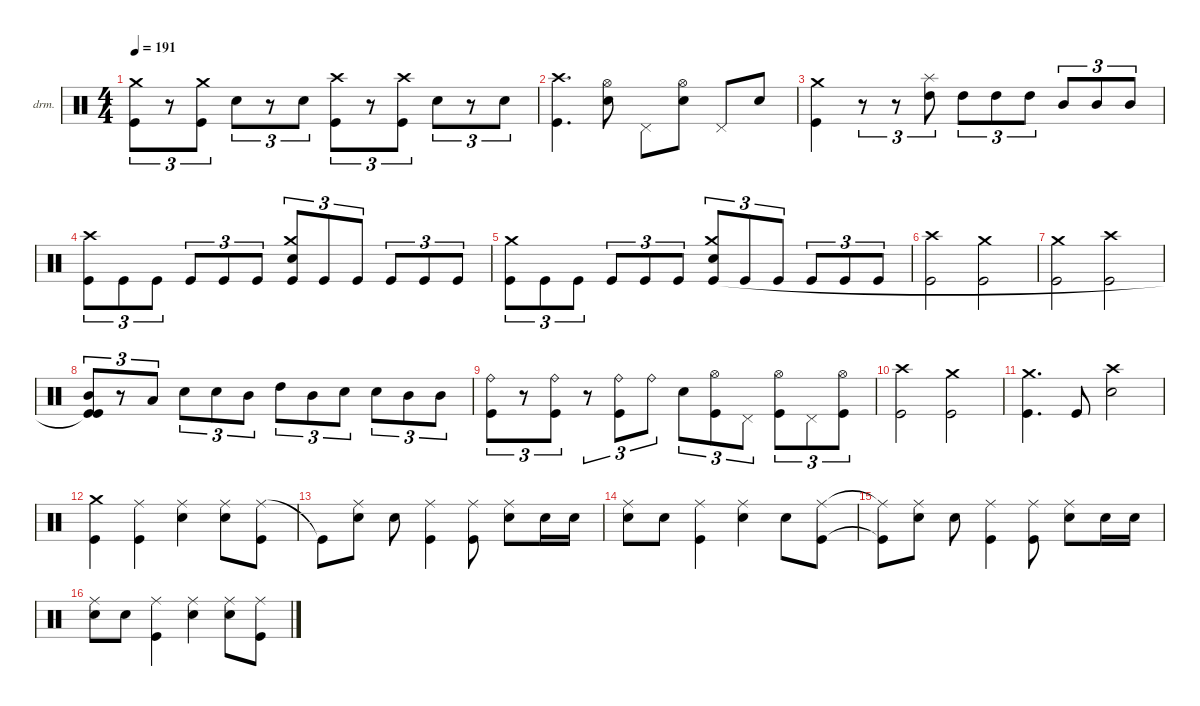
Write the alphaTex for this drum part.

\defaultSystemsLayout 4
\hideDynamics
\bracketExtendMode nobrackets
\firstSystemTrackNameOrientation horizontal
\otherSystemsTrackNameOrientation horizontal
\track ("Drumkit" "drm.") {instrument percussion}
\staff {score}
\articulation defaults
\ts (4 4)
\tempo 191
\clef neutral
\ks c
("Crash medium (hit)" "Kick (hit)").8{tu (3 2) dy mf beam Down} r.8{tu (3 2) beam Down} ("Crash medium (hit)" "Kick (hit)").8{tu (3 2) beam Down} "Snare (hit) 2".8{tu (3 2) beam Down} r.8{tu (3 2) beam Down} "Snare (hit) 2".8{tu (3 2) beam Down} ("Crash high (hit)" "Kick (hit)").8{tu (3 2) beam Down} r.8{tu (3 2) beam Down} ("Crash high (hit)" "Kick (hit)").8{tu (3 2) beam Down} "Snare (hit) 2".8{tu (3 2) beam Down} r.8{tu (3 2) beam Down} "Snare (hit) 2".8{tu (3 2) beam Down} |
("Crash high (hit)" "Kick (hit)").4{d beam Down} ("Hi-Hat (open)" "Snare (hit) 2").8{beam Down} "Pedal Hi-Hat (hit)".8{beam Down} ("Hi-Hat (open)" "Snare (hit) 2").8{beam Down} "Pedal Hi-Hat (hit)".8{beam Up} "Snare (hit) 2".8{beam Up} |
("Crash medium (hit)" "Kick (hit)").4{beam Down} r.8{tu (3 2) beam Down} r.8{tu (3 2) beam Down} ("Splash (hit)" "High Tom (hit)").8{tu (3 2) dy f beam Down} "High Tom (hit)".8{tu (3 2) dy mf beam Down} "High Tom (hit)".8{tu (3 2) beam Down} "High Tom (hit)".8{tu (3 2) beam Down} "Mid Tom (hit)".8{tu (3 2) beam Up} "Mid Tom (hit)".8{tu (3 2) beam Up} "Mid Tom (hit)".8{tu (3 2) beam Up} |
("Kick (hit)" "Crash high (hit)").8{tu (3 2) dy ff beam Down} "Kick (hit)".8{tu (3 2) dy f beam Down} "Kick (hit)".8{tu (3 2) beam Down} "Kick (hit)".8{tu (3 2) beam Up} "Kick (hit)".8{tu (3 2) beam Up} "Kick (hit)".8{tu (3 2) beam Up} ("Snare (hit) 2" "Crash medium (hit)" "Kick (hit)").8{tu (3 2) beam Up} "Kick (hit)".8{tu (3 2) beam Up} "Kick (hit)".8{tu (3 2) beam Up} "Kick (hit)".8{tu (3 2) beam Up} "Kick (hit)".8{tu (3 2) beam Up} "Kick (hit)".8{tu (3 2) beam Up} |
("Kick (hit)" "Crash medium (hit)").8{tu (3 2) dy ff beam Down} "Kick (hit)".8{tu (3 2) dy f beam Down} "Kick (hit)".8{tu (3 2) beam Down} "Kick (hit)".8{tu (3 2) beam Up} "Kick (hit)".8{tu (3 2) beam Up} "Kick (hit)".8{tu (3 2) beam Up} ("Snare (hit) 2" "Crash medium (hit)" "Kick (hit)").8{tu (3 2) beam Up} "Kick (hit)".8{tu (3 2) beam Up} "Kick (hit)".8{tu (3 2) beam Up} "Kick (hit)".8{tu (3 2) beam Up} "Kick (hit)".8{tu (3 2) beam Up} "Kick (hit)".8{tu (3 2) beam Up} |
("Kick (hit)" "Crash high (hit)").2{beam Down} ("Crash medium (hit)" "Kick (hit)").2{beam Down} |
("Kick (hit)" "Crash medium (hit)").2{beam Down} ("Crash high (hit)" "Kick (hit)").2{beam Down} |
("Kick (hit)" "Mid Tom (hit)" "Kick (hit)"{t}).8{tu (3 2) dy ff beam Up} r.8{tu (3 2) beam Up} "Low Tom (hit)".8{tu (3 2) beam Up} "Snare (hit) 2".8{tu (3 2) dy mf beam Down} "Snare (hit) 2".8{tu (3 2) dy mp beam Down} "Mid Tom (hit)".8{tu (3 2) dy ff beam Down} "High Tom (hit)".8{tu (3 2) beam Down} "Mid Tom (hit)".8{tu (3 2) beam Down} "Snare (hit) 2".8{tu (3 2) beam Down} "Snare (hit) 2".8{tu (3 2) beam Down} "Mid Tom (hit)".8{tu (3 2) beam Down} "Mid Tom (hit)".8{tu (3 2) beam Down} |
("Ride (bell)" "Kick (hit)").8{tu (3 2) dy f beam Down} r.8{tu (3 2) beam Down} ("Ride (bell)" "Kick (hit)").8{tu (3 2) beam Down} r.8{tu (3 2) beam Down} ("Ride (bell)" "Kick (hit)").8{tu (3 2) dy mp beam Down} "Ride (bell)".8{tu (3 2) beam Down} "Snare (hit) 2".8{tu (3 2) beam Down} ("Hi-Hat (open)" "Kick (hit)").8{tu (3 2) beam Down} "Pedal Hi-Hat (hit)".8{tu (3 2) beam Down} ("Hi-Hat (open)" "Kick (hit)").8{tu (3 2) beam Down} "Pedal Hi-Hat (hit)".8{tu (3 2) beam Down} ("Hi-Hat (open)" "Kick (hit)").8{tu (3 2) beam Down} |
("Kick (hit)" "Crash high (hit)").2{dy f beam Down} ("Crash medium (hit)" "Kick (hit)").2{beam Down} |
("Kick (hit)" "Crash medium (hit)").4{d beam Down} "Kick (hit)".8{beam Up} ("Crash high (hit)" "Snare (hit) 2").2{beam Down} |
("Crash medium (hit)" "Kick (hit)").4{beam Down} ("Ride (middle)" "Kick (hit)").4{dy mp beam Down} ("Ride (middle)" "Snare (hit) 2").4{beam Down} ("Ride (middle)" "Snare (hit) 2").8{dy f beam Down} ("Ride (middle)" "Kick (hit)").8{beam Down} |
"Kick (hit)"{t}.8{beam Down} ("Ride (middle)" "Snare (hit) 2").8{beam Down} "Snare (hit) 2".8{beam Down} ("Ride (middle)" "Kick (hit)").4{beam Down} ("Ride (middle)" "Kick (hit)").8{beam Down} ("Ride (middle)" "Snare (hit) 2").8{beam Down} "Snare (hit) 2".16{dy mp beam Down} "Snare (hit) 2".16{beam Down} |
("Ride (middle)" "Snare (hit) 2").8{dy f beam Down} "Snare (hit) 2".8{dy mf beam Down} ("Ride (middle)" "Kick (hit)").4{dy f beam Down} ("Ride (middle)" "Snare (hit) 2").4{beam Down} "Snare (hit) 2".8{dy mf beam Down} ("Ride (middle)" "Kick (hit)").8{beam Down} |
("Ride (middle)"{t} "Kick (hit)"{t}).8{beam Down} ("Ride (middle)" "Snare (hit) 2").8{dy f beam Down} "Snare (hit) 2".8{beam Down} ("Kick (hit)" "Ride (middle)").4{beam Down} ("Ride (middle)" "Kick (hit)").8{beam Down} ("Ride (middle)" "Snare (hit) 2").8{beam Down} "Snare (hit) 2".16{dy mp beam Down} "Snare (hit) 2".16{beam Down} |
("Ride (middle)" "Snare (hit) 2").8{dy f beam Down} "Snare (hit) 2".8{dy mf beam Down} ("Ride (middle)" "Kick (hit)").4{dy f beam Down} ("Ride (middle)" "Snare (hit) 2").4{beam Down} ("Ride (middle)" "Snare (hit) 2").8{beam Down} ("Ride (middle)" "Kick (hit)").8{beam Down}
